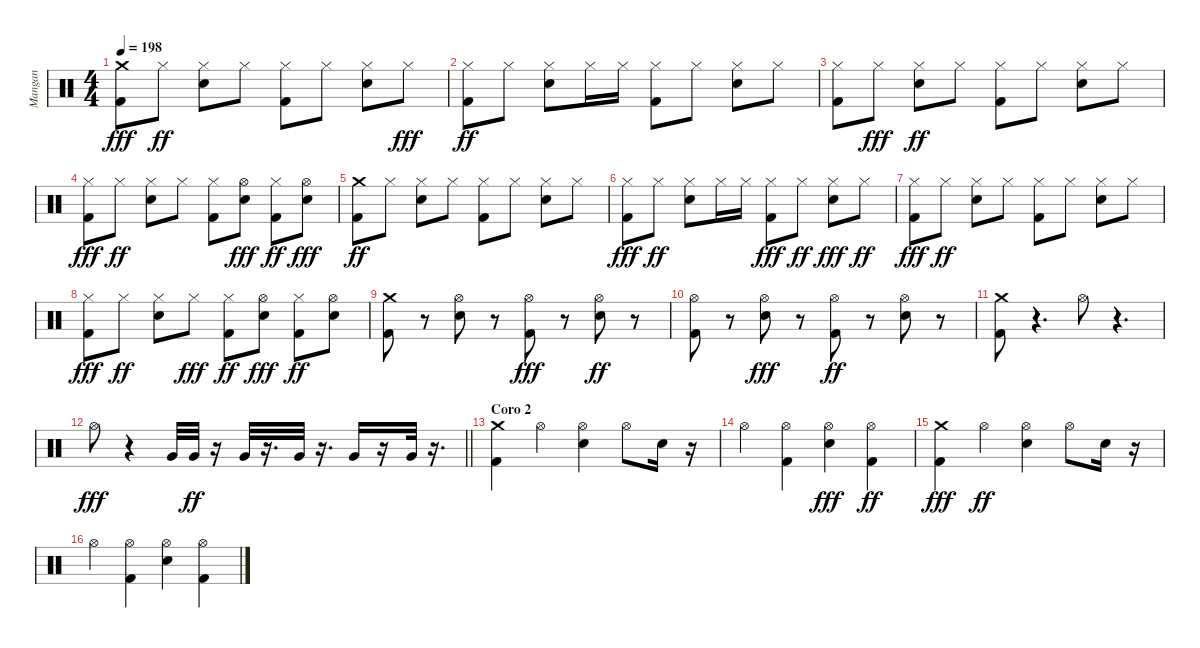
\track ("Mangan" "Mangan") {instrument percussion}
\staff {score}
\articulation defaults
\ts (4 4)
\tempo 198
\clef neutral
\ks c
("Kick (hit) 2" "Crash medium (hit)").8{dy fff} "Hi-Hat (closed)".8{dy ff} ("Snare (hit) 2" "Hi-Hat (closed)").8 "Hi-Hat (closed)".8 ("Kick (hit) 2" "Hi-Hat (closed)").8 "Hi-Hat (closed)".8 ("Snare (hit) 2" "Hi-Hat (closed)").8 "Hi-Hat (closed)".8{dy fff} |
("Kick (hit) 2" "Hi-Hat (closed)").8{dy ff} "Hi-Hat (closed)".8 ("Snare (hit) 2" "Hi-Hat (closed)").8 "Hi-Hat (closed)".16 "Hi-Hat (closed)".16 ("Kick (hit) 2" "Hi-Hat (closed)").8 "Hi-Hat (closed)".8 ("Snare (hit) 2" "Hi-Hat (closed)").8 "Hi-Hat (closed)".8 |
("Kick (hit) 2" "Hi-Hat (closed)").8 "Hi-Hat (closed)".8{dy fff} ("Snare (hit) 2" "Hi-Hat (closed)").8{dy ff} "Hi-Hat (closed)".8 ("Kick (hit) 2" "Hi-Hat (closed)").8 "Hi-Hat (closed)".8 ("Snare (hit) 2" "Hi-Hat (closed)").8 "Hi-Hat (closed)".8 |
("Kick (hit) 2" "Hi-Hat (closed)").8{dy fff} "Hi-Hat (closed)".8{dy ff} ("Snare (hit) 2" "Hi-Hat (closed)").8 "Hi-Hat (closed)".8 ("Kick (hit) 2" "Hi-Hat (closed)").8 ("Snare (hit) 2" "Hi-Hat (open)").8{dy fff} ("Kick (hit) 2" "Hi-Hat (closed)").8{dy ff} ("Snare (hit) 2" "Hi-Hat (open)").8{dy fff} |
("Kick (hit) 2" "Crash medium (hit)").8{dy ff} "Hi-Hat (closed)".8 ("Snare (hit) 2" "Hi-Hat (closed)").8 "Hi-Hat (closed)".8 ("Kick (hit) 2" "Hi-Hat (closed)").8 "Hi-Hat (closed)".8 ("Snare (hit) 2" "Hi-Hat (closed)").8 "Hi-Hat (closed)".8 |
("Kick (hit) 2" "Hi-Hat (closed)").8{dy fff} "Hi-Hat (closed)".8{dy ff} ("Snare (hit) 2" "Hi-Hat (closed)").8 "Hi-Hat (closed)".16 "Hi-Hat (closed)".16 ("Kick (hit) 2" "Hi-Hat (closed)").8{dy fff} "Hi-Hat (closed)".8{dy ff} ("Snare (hit) 2" "Hi-Hat (closed)").8{dy fff} "Hi-Hat (closed)".8{dy ff} |
("Kick (hit) 2" "Hi-Hat (closed)").8{dy fff} "Hi-Hat (closed)".8{dy ff} ("Snare (hit) 2" "Hi-Hat (closed)").8 "Hi-Hat (closed)".8 ("Kick (hit) 2" "Hi-Hat (closed)").8 "Hi-Hat (closed)".8 ("Snare (hit) 2" "Hi-Hat (closed)").8 "Hi-Hat (closed)".8 |
("Kick (hit) 2" "Hi-Hat (closed)").8{dy fff} "Hi-Hat (closed)".8{dy ff} ("Snare (hit) 2" "Hi-Hat (closed)").8 "Hi-Hat (closed)".8{dy fff} ("Kick (hit) 2" "Hi-Hat (closed)").8{dy ff} ("Snare (hit) 2" "Hi-Hat (open)").8{dy fff} ("Kick (hit) 2" "Hi-Hat (closed)").8{dy ff} ("Snare (hit) 2" "Hi-Hat (open)").8 |
("Kick (hit) 2" "Crash medium (hit)").8 r.8 ("Snare (hit) 2" "Hi-Hat (open)").8 r.8 ("Kick (hit) 2" "Hi-Hat (open)").8{dy fff} r.8 ("Snare (hit) 2" "Hi-Hat (open)").8{dy ff} r.8 |
("Kick (hit) 2" "Hi-Hat (open)").8 r.8 ("Snare (hit) 2" "Hi-Hat (open)").8{dy fff} r.8 ("Kick (hit) 2" "Hi-Hat (open)").8{dy ff} r.8 ("Snare (hit) 2" "Hi-Hat (open)").8 r.8 |
("Kick (hit) 2" "Crash medium (hit)").8 r.4{d} "Hi-Hat (open)".8 r.4{d} |
\barLineRight lightlight "Hi-Hat (open)".8{dy fff}
r.4 "Very Low Tom (hit)".32 "Very Low Tom (hit)".32{dy ff} r.16 "Very Low Tom (hit)".32 r.16{d} "Very Low Tom (hit)".32 r.16{d} "Very Low Tom (hit)".16 r.16 "Very Low Tom (hit)".32 r.16{d} |
\section ("" "Coro 2")
("Kick (hit) 2" "Crash medium (hit)").4 "Hi-Hat (open)".4 ("Snare (hit) 2" "Hi-Hat (open)").4 "Hi-Hat (open)".8 "Snare (hit) 2".16 r.16 |
"Hi-Hat (open)".4 ("Kick (hit) 2" "Hi-Hat (open)").4 ("Snare (hit) 2" "Hi-Hat (open)").4{dy fff} ("Kick (hit) 2" "Hi-Hat (open)").4{dy ff} |
("Kick (hit) 2" "Crash medium (hit)").4{dy fff} "Hi-Hat (open)".4{dy ff} ("Snare (hit) 2" "Hi-Hat (open)").4 "Hi-Hat (open)".8 "Snare (hit) 2".16 r.16 |
"Hi-Hat (open)".4 ("Kick (hit) 2" "Hi-Hat (open)").4 ("Snare (hit) 2" "Hi-Hat (open)").4 ("Kick (hit) 2" "Hi-Hat (open)").4
